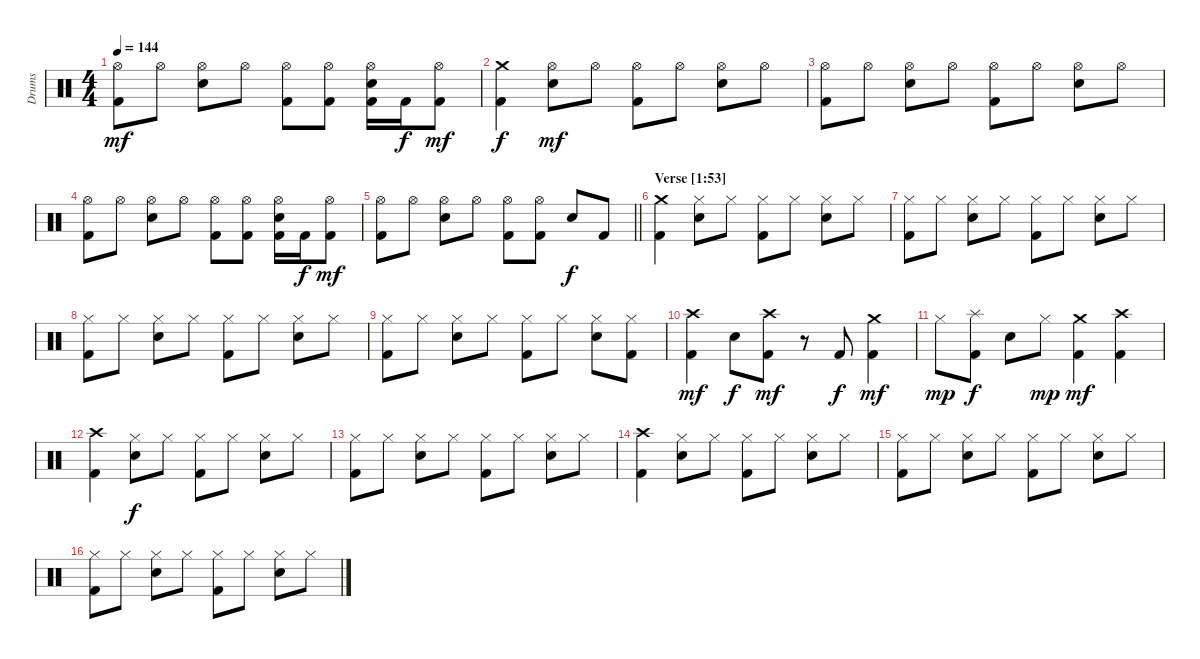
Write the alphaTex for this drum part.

\track ("Drums" "Drums") {instrument percussion}
\staff {score}
\articulation defaults
\ts (4 4)
\tempo 144
\clef neutral
\ks c
("Hi-Hat (open)" "Kick (hit) 2").8{dy mf} "Hi-Hat (open)".8 ("Hi-Hat (open)" "Snare (hit) 2").8 "Hi-Hat (open)".8 ("Hi-Hat (open)" "Kick (hit) 2").8 ("Hi-Hat (open)" "Kick (hit) 2").8 ("Hi-Hat (open)" "Snare (hit) 2" "Kick (hit) 2").16 "Kick (hit) 2".16{dy f} ("Hi-Hat (open)" "Kick (hit) 2").8{dy mf} |
("Crash medium (hit)" "Kick (hit) 2").4{dy f} ("Hi-Hat (open)" "Snare (hit) 2").8{dy mf} "Hi-Hat (open)".8 ("Hi-Hat (open)" "Kick (hit) 2").8 "Hi-Hat (open)".8 ("Hi-Hat (open)" "Snare (hit) 2").8 "Hi-Hat (open)".8 |
("Hi-Hat (open)" "Kick (hit) 2").8 "Hi-Hat (open)".8 ("Hi-Hat (open)" "Snare (hit) 2").8 "Hi-Hat (open)".8 ("Hi-Hat (open)" "Kick (hit) 2").8 "Hi-Hat (open)".8 ("Hi-Hat (open)" "Snare (hit) 2").8 "Hi-Hat (open)".8 |
("Hi-Hat (open)" "Kick (hit) 2").8 "Hi-Hat (open)".8 ("Hi-Hat (open)" "Snare (hit) 2").8 "Hi-Hat (open)".8 ("Hi-Hat (open)" "Kick (hit) 2").8 ("Hi-Hat (open)" "Kick (hit) 2").8 ("Hi-Hat (open)" "Snare (hit) 2" "Kick (hit) 2").16 "Kick (hit) 2".16{dy f} ("Hi-Hat (open)" "Kick (hit) 2").8{dy mf} |
\barLineRight lightlight
("Hi-Hat (open)" "Kick (hit) 2").8 "Hi-Hat (open)".8 ("Hi-Hat (open)" "Snare (hit) 2").8 "Hi-Hat (open)".8 ("Hi-Hat (open)" "Kick (hit) 2").8 ("Hi-Hat (open)" "Kick (hit) 2").8 "Snare (hit) 2".8{dy f} "Kick (hit) 2".8 |
\section ("" "Verse [1:53]")
("Crash medium (hit)" "Kick (hit) 2").4 ("Hi-Hat (closed)" "Snare (hit) 2").8 "Hi-Hat (closed)".8 ("Hi-Hat (closed)" "Kick (hit) 2").8 "Hi-Hat (closed)".8 ("Hi-Hat (closed)" "Snare (hit) 2").8 "Hi-Hat (closed)".8 |
("Hi-Hat (closed)" "Kick (hit) 2").8 "Hi-Hat (closed)".8 ("Hi-Hat (closed)" "Snare (hit) 2").8 "Hi-Hat (closed)".8 ("Hi-Hat (closed)" "Kick (hit) 2").8 "Hi-Hat (closed)".8 ("Hi-Hat (closed)" "Snare (hit) 2").8 "Hi-Hat (closed)".8 |
("Hi-Hat (closed)" "Kick (hit) 2").8 "Hi-Hat (closed)".8 ("Hi-Hat (closed)" "Snare (hit) 2").8 "Hi-Hat (closed)".8 ("Hi-Hat (closed)" "Kick (hit) 2").8 "Hi-Hat (closed)".8 ("Hi-Hat (closed)" "Snare (hit) 2").8 "Hi-Hat (closed)".8 |
("Hi-Hat (closed)" "Kick (hit) 2").8 "Hi-Hat (closed)".8 ("Hi-Hat (closed)" "Snare (hit) 2").8 "Hi-Hat (closed)".8 ("Hi-Hat (closed)" "Kick (hit) 2").8 "Hi-Hat (closed)".8 ("Hi-Hat (closed)" "Snare (hit) 2").8 ("Hi-Hat (closed)" "Kick (hit) 2").8 |
("Crash high (hit)" "Kick (hit) 2").4{dy mf} "Snare (hit) 2".8{dy f} ("Crash high (hit)" "Kick (hit) 2").8{dy mf} r.8 "Kick (hit) 2".8{dy f} ("Crash medium (hit)" "Kick (hit) 2").4{dy mf} |
"Hi-Hat (closed)".8{dy mp} ("Splash (hit)" "Kick (hit) 2").8{dy f} "Snare (hit) 2".8 "Hi-Hat (closed)".8{dy mp} ("Crash medium (hit)" "Kick (hit) 2").4{dy mf} ("Crash high (hit)" "Kick (hit) 2").4 |
("Crash high (hit)" "Kick (hit) 2").4 ("Hi-Hat (closed)" "Snare (hit) 2").8{dy f} "Hi-Hat (closed)".8 ("Hi-Hat (closed)" "Kick (hit) 2").8 "Hi-Hat (closed)".8 ("Hi-Hat (closed)" "Snare (hit) 2").8 "Hi-Hat (closed)".8 |
("Hi-Hat (closed)" "Kick (hit) 2").8 "Hi-Hat (closed)".8 ("Hi-Hat (closed)" "Snare (hit) 2").8 "Hi-Hat (closed)".8 ("Hi-Hat (closed)" "Kick (hit) 2").8 "Hi-Hat (closed)".8 ("Hi-Hat (closed)" "Snare (hit) 2").8 "Hi-Hat (closed)".8 |
("Crash high (hit)" "Kick (hit) 2").4 ("Hi-Hat (closed)" "Snare (hit) 2").8 "Hi-Hat (closed)".8 ("Hi-Hat (closed)" "Kick (hit) 2").8 "Hi-Hat (closed)".8 ("Hi-Hat (closed)" "Snare (hit) 2").8 "Hi-Hat (closed)".8 |
("Hi-Hat (closed)" "Kick (hit) 2").8 "Hi-Hat (closed)".8 ("Hi-Hat (closed)" "Snare (hit) 2").8 "Hi-Hat (closed)".8 ("Hi-Hat (closed)" "Kick (hit) 2").8 "Hi-Hat (closed)".8 ("Hi-Hat (closed)" "Snare (hit) 2").8 "Hi-Hat (closed)".8 |
("Hi-Hat (closed)" "Kick (hit) 2").8 "Hi-Hat (closed)".8 ("Hi-Hat (closed)" "Snare (hit) 2").8 "Hi-Hat (closed)".8 ("Hi-Hat (closed)" "Kick (hit) 2").8 "Hi-Hat (closed)".8 ("Hi-Hat (closed)" "Snare (hit) 2").8 "Hi-Hat (closed)".8
